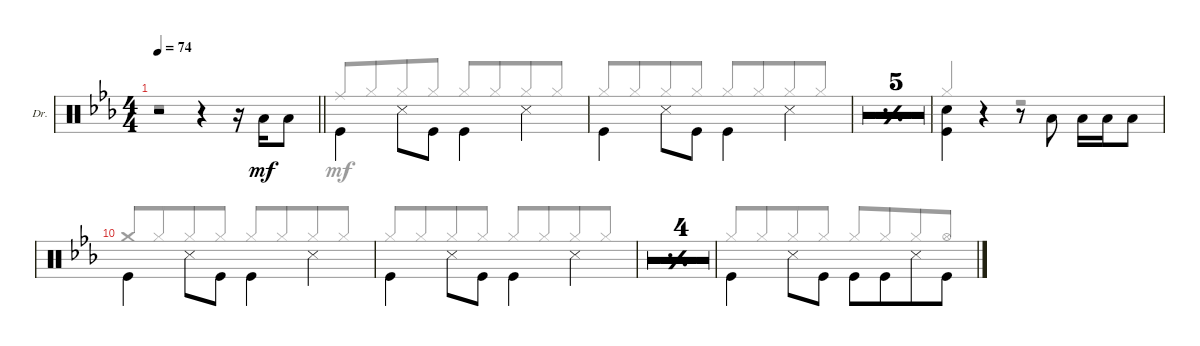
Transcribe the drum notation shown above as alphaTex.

\bracketExtendMode groupsimilarinstruments
\firstSystemTrackNameOrientation horizontal
\otherSystemsTrackNameOrientation horizontal
\defaultBarNumberDisplay FirstOfSystem
\track ("Drums" "Dr.") {multiBarRest instrument percussion}
\staff {score}
\articulation defaults
\voice
\ts (4 4)
\beaming (8 2 2 2 2)
\tempo 74
\clef neutral
\barLineRight lightlight
\ks eb
r.2{dy mf beam invert} r.4{beam invert} r.16{beam invert} "Low Tom (hit)".16{beam invert} "Low Tom (hit)".8 |
"Kick (hit)".4{beam invert} "Snare (side stick) 3".8 "Kick (hit)".8{beam invert} "Kick (hit)".4{beam invert} "Snare (side stick) 3".4{beam invert} |
"Kick (hit)".4{beam invert} "Snare (side stick) 3".8{beam invert} "Kick (hit)".8 "Kick (hit)".4{beam invert} "Snare (side stick) 3".4{beam invert} |
\simile simple
|
|
|
|
|
\simile none
("Kick (hit)" "Snare (hit) 2").4{beam invert} r.4{beam invert} r.8{beam invert} "Low Tom (hit)".8{beam invert} "Low Tom (hit)".16{beam invert} "Low Tom (hit)".16{beam invert} "Low Tom (hit)".8{beam invert} |
"Kick (hit)".4{beam invert} "Snare (side stick) 3".8{beam invert} "Kick (hit)".8 "Kick (hit)".4{beam invert} "Snare (side stick) 3".4{beam invert} |
"Kick (hit)".4{beam invert} "Snare (side stick) 3".8{beam invert} "Kick (hit)".8 "Kick (hit)".4{beam invert} "Snare (side stick) 3".4{beam invert} |
\simile simple
|
|
|
|
\simile none "Kick (hit)".4{beam invert} "Snare (side stick) 3".8{beam invert} "Kick (hit)".8 "Kick (hit)".8{beam invert} "Kick (hit)".8{beam merge} "Snare (side stick) 3".8 "Kick (hit)".8
\voice
\clef neutral
\ottava regular
\simile none
\barLineRight lightlight
\ks eb
r.1{dy mf} |
"Ride (middle)".8{beam invert} "Hi-Hat (closed)".8{beam merge} "Hi-Hat (closed)".8 "Hi-Hat (closed)".8 "Hi-Hat (closed)".8{beam invert} "Hi-Hat (closed)".8{beam merge} "Hi-Hat (closed)".8 "Hi-Hat (closed)".8 |
"Hi-Hat (closed)".8{beam invert} "Hi-Hat (closed)".8{beam merge} "Hi-Hat (closed)".8 "Hi-Hat (closed)".8 "Hi-Hat (closed)".8{beam invert} "Hi-Hat (closed)".8{beam merge} "Hi-Hat (closed)".8{beam merge} "Hi-Hat (closed)".8 |
\simile simple
|
|
|
|
|
\simile none "Hi-Hat (closed)".4{beam invert}
r.4 r.2 |
"Crash medium (hit)".8{beam invert} "Hi-Hat (closed)".8{beam merge} "Hi-Hat (closed)".8 "Hi-Hat (closed)".8 "Hi-Hat (closed)".8{beam invert} "Hi-Hat (closed)".8{beam merge} "Hi-Hat (closed)".8{beam merge} "Hi-Hat (closed)".8 |
"Hi-Hat (closed)".8{beam invert} "Hi-Hat (closed)".8{beam merge} "Hi-Hat (closed)".8 "Hi-Hat (closed)".8 "Hi-Hat (closed)".8{beam invert} "Hi-Hat (closed)".8{beam merge} "Hi-Hat (closed)".8 "Hi-Hat (closed)".8 |
\simile simple
|
|
|
|
\simile none "Hi-Hat (closed)".8{beam invert} "Hi-Hat (closed)".8{beam merge} "Hi-Hat (closed)".8 "Hi-Hat (closed)".8 "Hi-Hat (closed)".8{beam invert} "Hi-Hat (closed)".8{beam merge} "Hi-Hat (closed)".8{beam merge} "Hi-Hat (open)".8
